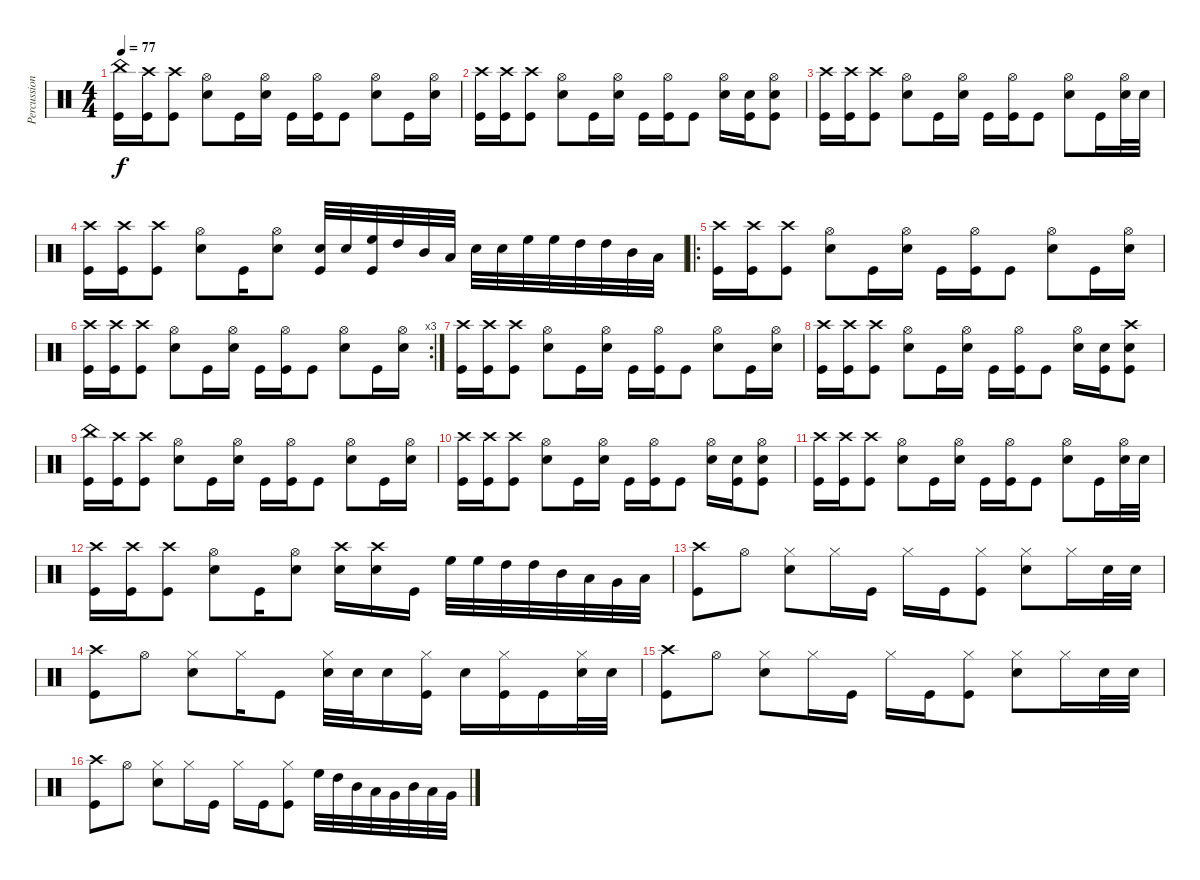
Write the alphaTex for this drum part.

\track ("Percussion" "Percussion") {instrument percussion}
\staff {score}
\articulation defaults
\ts (4 4)
\tempo 77
\clef neutral
\ks c
("China (hit)" "Kick (hit)").16{dy f} ("Crash high (hit)" "Kick (hit)").16 ("Crash high (hit)" "Kick (hit)").8 ("Hi-Hat (open)" "Snare (hit) 2").8 "Kick (hit)".16 ("Hi-Hat (open)" "Snare (hit) 2").16 "Kick (hit)".16 ("Hi-Hat (open)" "Kick (hit)").16 "Kick (hit)".8 ("Hi-Hat (open)" "Snare (hit) 2").8 "Kick (hit)".16 ("Hi-Hat (open)" "Snare (hit) 2").16 |
("Crash high (hit)" "Kick (hit)").16 ("Crash high (hit)" "Kick (hit)").16 ("Crash high (hit)" "Kick (hit)").8 ("Hi-Hat (open)" "Snare (hit) 2").8 "Kick (hit)".16 ("Hi-Hat (open)" "Snare (hit) 2").16 "Kick (hit)".16 ("Hi-Hat (open)" "Kick (hit)").16 "Kick (hit)".8 ("Hi-Hat (open)" "Snare (hit) 2").16 ("Snare (hit) 2" "Kick (hit)").16 ("Hi-Hat (open)" "Snare (hit) 2" "Kick (hit)").8 |
("Crash high (hit)" "Kick (hit)").16 ("Crash high (hit)" "Kick (hit)").16 ("Crash high (hit)" "Kick (hit)").8 ("Hi-Hat (open)" "Snare (hit) 2").8 "Kick (hit)".16 ("Hi-Hat (open)" "Snare (hit) 2").16 "Kick (hit)".16 ("Hi-Hat (open)" "Kick (hit)").16 "Kick (hit)".8 ("Hi-Hat (open)" "Snare (hit) 2").8 "Kick (hit)".16 ("Hi-Hat (open)" "Snare (hit) 2").32 "Snare (hit) 2".32 |
("Crash high (hit)" "Kick (hit)").16 ("Crash high (hit)" "Kick (hit)").16 ("Crash high (hit)" "Kick (hit)").8 ("Hi-Hat (open)" "Snare (hit) 2").8 "Kick (hit)".16 ("Hi-Hat (open)" "Snare (hit) 2").8 ("Snare (hit) 2" "Kick (hit)").32 "Snare (hit) 2".32 ("High Floor Tom (hit)" "Kick (hit)").32 "High Tom (hit)".32 "Mid Tom (hit)".32 "Low Tom (hit)".32 "Snare (hit) 2".32 "Snare (hit) 2".32 "High Floor Tom (hit)".32 "High Floor Tom (hit)".32 "High Tom (hit)".32 "High Tom (hit)".32 "Mid Tom (hit)".32 "Low Tom (hit)".32 |
\ro
("Crash high (hit)" "Kick (hit)").16 ("Crash high (hit)" "Kick (hit)").16 ("Crash high (hit)" "Kick (hit)").8 ("Hi-Hat (open)" "Snare (hit) 2").8 "Kick (hit)".16 ("Hi-Hat (open)" "Snare (hit) 2").16 "Kick (hit)".16 ("Hi-Hat (open)" "Kick (hit)").16 "Kick (hit)".8 ("Hi-Hat (open)" "Snare (hit) 2").8 "Kick (hit)".16 ("Hi-Hat (open)" "Snare (hit) 2").16 |
\rc 3
("Crash high (hit)" "Kick (hit)").16 ("Crash high (hit)" "Kick (hit)").16 ("Crash high (hit)" "Kick (hit)").8 ("Hi-Hat (open)" "Snare (hit) 2").8 "Kick (hit)".16 ("Hi-Hat (open)" "Snare (hit) 2").16 "Kick (hit)".16 ("Hi-Hat (open)" "Kick (hit)").16 "Kick (hit)".8 ("Hi-Hat (open)" "Snare (hit) 2").8 "Kick (hit)".16 ("Hi-Hat (open)" "Snare (hit) 2").16 |
("Crash high (hit)" "Kick (hit)").16 ("Crash high (hit)" "Kick (hit)").16 ("Crash high (hit)" "Kick (hit)").8 ("Hi-Hat (open)" "Snare (hit) 2").8 "Kick (hit)".16 ("Hi-Hat (open)" "Snare (hit) 2").16 "Kick (hit)".16 ("Hi-Hat (open)" "Kick (hit)").16 "Kick (hit)".8 ("Hi-Hat (open)" "Snare (hit) 2").8 "Kick (hit)".16 ("Hi-Hat (open)" "Snare (hit) 2").16 |
("Crash high (hit)" "Kick (hit)").16 ("Crash high (hit)" "Kick (hit)").16 ("Crash high (hit)" "Kick (hit)").8 ("Hi-Hat (open)" "Snare (hit) 2").8 "Kick (hit)".16 ("Hi-Hat (open)" "Snare (hit) 2").16 "Kick (hit)".16 ("Hi-Hat (open)" "Kick (hit)").16 "Kick (hit)".8 ("Hi-Hat (open)" "Snare (hit) 2").16 ("Snare (hit) 2" "Kick (hit)").16 ("Crash high (hit)" "Snare (hit) 2" "Kick (hit)").8 |
("China (hit)" "Kick (hit)").16 ("Crash high (hit)" "Kick (hit)").16 ("Crash high (hit)" "Kick (hit)").8 ("Hi-Hat (open)" "Snare (hit) 2").8 "Kick (hit)".16 ("Hi-Hat (open)" "Snare (hit) 2").16 "Kick (hit)".16 ("Hi-Hat (open)" "Kick (hit)").16 "Kick (hit)".8 ("Hi-Hat (open)" "Snare (hit) 2").8 "Kick (hit)".16 ("Hi-Hat (open)" "Snare (hit) 2").16 |
("Crash high (hit)" "Kick (hit)").16 ("Crash high (hit)" "Kick (hit)").16 ("Crash high (hit)" "Kick (hit)").8 ("Hi-Hat (open)" "Snare (hit) 2").8 "Kick (hit)".16 ("Hi-Hat (open)" "Snare (hit) 2").16 "Kick (hit)".16 ("Hi-Hat (open)" "Kick (hit)").16 "Kick (hit)".8 ("Hi-Hat (open)" "Snare (hit) 2").16 ("Snare (hit) 2" "Kick (hit)").16 ("Hi-Hat (open)" "Snare (hit) 2" "Kick (hit)").8 |
("Crash high (hit)" "Kick (hit)").16 ("Crash high (hit)" "Kick (hit)").16 ("Crash high (hit)" "Kick (hit)").8 ("Hi-Hat (open)" "Snare (hit) 2").8 "Kick (hit)".16 ("Hi-Hat (open)" "Snare (hit) 2").16 "Kick (hit)".16 ("Hi-Hat (open)" "Kick (hit)").16 "Kick (hit)".8 ("Hi-Hat (open)" "Snare (hit) 2").8 "Kick (hit)".16 ("Hi-Hat (open)" "Snare (hit) 2").32 "Snare (hit) 2".32 |
("Crash high (hit)" "Kick (hit)").16 ("Crash high (hit)" "Kick (hit)").16 ("Crash high (hit)" "Kick (hit)").8 ("Hi-Hat (open)" "Snare (hit) 2").8 "Kick (hit)".16 ("Hi-Hat (open)" "Snare (hit) 2").8 ("Crash high (hit)" "Snare (hit) 2").16 ("Crash high (hit)" "Snare (hit) 2").16 "Kick (hit)".16 "High Floor Tom (hit)".32 "High Floor Tom (hit)".32 "High Tom (hit)".32 "High Tom (hit)".32 "Mid Tom (hit)".32 "Low Tom (hit)".32 "Very Low Tom (hit)".32 "Low Floor Tom (hit)".32 |
("Crash high (hit)" "Kick (hit)").8 "Hi-Hat (open)".8 ("Hi-Hat (closed)" "Snare (hit) 2").8 "Hi-Hat (closed)".16 "Kick (hit)".16 "Hi-Hat (closed)".16 "Kick (hit)".16 ("Hi-Hat (closed)" "Kick (hit)").8 ("Hi-Hat (closed)" "Snare (hit) 2").8 "Hi-Hat (closed)".16 "Snare (hit) 2".32 "Snare (hit) 2".32 |
("Crash high (hit)" "Kick (hit)").8 "Hi-Hat (open)".8 ("Hi-Hat (closed)" "Snare (hit) 2").8 "Hi-Hat (closed)".16 "Kick (hit)".8 ("Hi-Hat (closed)" "Snare (hit) 2").32 "Snare (hit) 2".32 "Snare (hit) 2".16 ("Hi-Hat (closed)" "Kick (hit)").16 "Snare (hit) 2".16 ("Hi-Hat (closed)" "Kick (hit)").16 "Kick (hit)".16 ("Hi-Hat (closed)" "Snare (hit) 2").32 "Snare (hit) 2".32 |
("Crash high (hit)" "Kick (hit)").8 "Hi-Hat (open)".8 ("Hi-Hat (closed)" "Snare (hit) 2").8 "Hi-Hat (closed)".16 "Kick (hit)".16 "Hi-Hat (closed)".16 "Kick (hit)".16 ("Hi-Hat (closed)" "Kick (hit)").8 ("Hi-Hat (closed)" "Snare (hit) 2").8 "Hi-Hat (closed)".16 "Snare (hit) 2".32 "Snare (hit) 2".32 |
("Crash high (hit)" "Kick (hit)").8 "Hi-Hat (open)".8 ("Hi-Hat (closed)" "Snare (hit) 2").8 "Hi-Hat (closed)".16 "Kick (hit)".16 "Hi-Hat (closed)".16 "Kick (hit)".16 ("Hi-Hat (closed)" "Kick (hit)").8 "High Floor Tom (hit)".32 "High Tom (hit)".32 "Mid Tom (hit)".32 "Low Tom (hit)".32 "Very Low Tom (hit)".32 "Mid Tom (hit)".32 "Low Tom (hit)".32 "Very Low Tom (hit)".32
